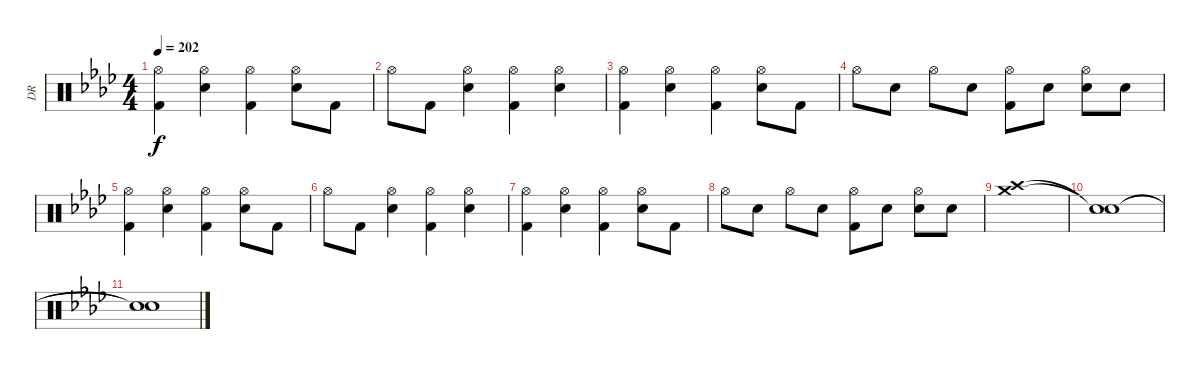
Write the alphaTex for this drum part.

\track ("DR" "DR") {instrument percussion}
\staff {score}
\articulation defaults
\ts (4 4)
\tempo 202
\clef neutral
\ks ab
("Hi-Hat (open)" "Kick (hit) 2").4{dy f} ("Hi-Hat (open)" "Electric Snare (hit)").4 ("Hi-Hat (open)" "Kick (hit) 2").4 ("Hi-Hat (open)" "Electric Snare (hit)").8 "Kick (hit) 2".8 |
"Hi-Hat (open)".8 "Kick (hit) 2".8 ("Hi-Hat (open)" "Electric Snare (hit)").4 ("Hi-Hat (open)" "Kick (hit) 2").4 ("Hi-Hat (open)" "Electric Snare (hit)").4 |
("Hi-Hat (open)" "Kick (hit) 2").4 ("Hi-Hat (open)" "Electric Snare (hit)").4 ("Hi-Hat (open)" "Kick (hit) 2").4 ("Hi-Hat (open)" "Electric Snare (hit)").8 "Kick (hit) 2".8 |
"Hi-Hat (open)".8 "Electric Snare (hit)".8 "Hi-Hat (open)".8 "Electric Snare (hit)".8 ("Hi-Hat (open)" "Kick (hit) 2").8 "Electric Snare (hit)".8 ("Hi-Hat (open)" "Electric Snare (hit)").8 "Electric Snare (hit)".8 |
("Hi-Hat (open)" "Kick (hit) 2").4 ("Hi-Hat (open)" "Electric Snare (hit)").4 ("Hi-Hat (open)" "Kick (hit) 2").4 ("Hi-Hat (open)" "Electric Snare (hit)").8 "Kick (hit) 2".8 |
"Hi-Hat (open)".8 "Kick (hit) 2".8 ("Hi-Hat (open)" "Electric Snare (hit)").4 ("Hi-Hat (open)" "Kick (hit) 2").4 ("Hi-Hat (open)" "Electric Snare (hit)").4 |
("Hi-Hat (open)" "Kick (hit) 2").4 ("Hi-Hat (open)" "Electric Snare (hit)").4 ("Hi-Hat (open)" "Kick (hit) 2").4 ("Hi-Hat (open)" "Electric Snare (hit)").8 "Kick (hit) 2".8 |
"Hi-Hat (open)".8 "Electric Snare (hit)".8 "Hi-Hat (open)".8 "Electric Snare (hit)".8 ("Hi-Hat (open)" "Kick (hit) 2").8 "Electric Snare (hit)".8 ("Hi-Hat (open)" "Electric Snare (hit)").8 "Electric Snare (hit)".8 |
("Crash medium (hit)" "Crash high (hit)").1 |
("Snare (hit)"{t} "Snare (hit)"{t}).1 |
("Snare (hit)"{t} "Snare (hit)"{t}).1
